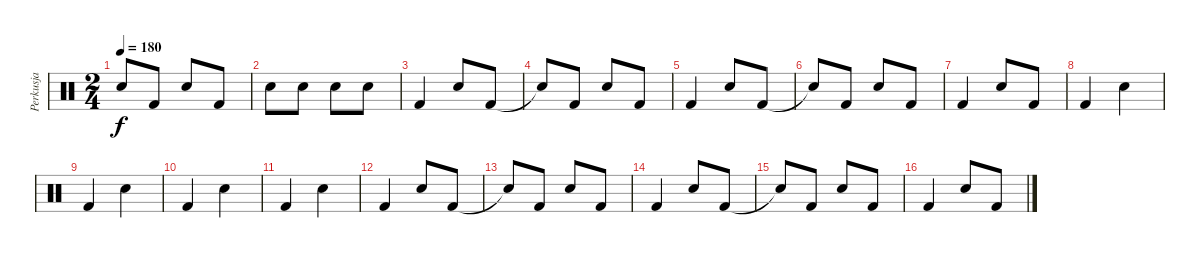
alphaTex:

\track ("Perkusja" "Perkusja") {instrument percussion}
\staff {score}
\articulation defaults
\ts (2 4)
\tempo 180
\clef neutral
\ks c "Snare (hit)"{t}.8{dy f} "Kick (hit) 2".8 "Snare (hit) 2".8 "Kick (hit) 2".8
|
"Snare (hit) 2".8 "Snare (hit) 2".8 "Snare (hit) 2".8 "Snare (hit) 2".8 |
"Kick (hit) 2".4 "Snare (hit) 2".8 "Kick (hit) 2".8 |
"Snare (hit)"{t}.8 "Kick (hit) 2".8 "Snare (hit) 2".8 "Kick (hit) 2".8 |
"Kick (hit) 2".4 "Snare (hit) 2".8 "Kick (hit) 2".8 |
"Snare (hit)"{t}.8 "Kick (hit) 2".8 "Snare (hit) 2".8 "Kick (hit) 2".8 |
"Kick (hit) 2".4 "Snare (hit) 2".8 "Kick (hit) 2".8 |
"Kick (hit) 2".4 "Snare (hit) 2".4 |
"Kick (hit) 2".4 "Snare (hit) 2".4 |
"Kick (hit) 2".4 "Snare (hit) 2".4 |
"Kick (hit) 2".4 "Snare (hit) 2".4 |
"Kick (hit) 2".4 "Snare (hit) 2".8 "Kick (hit) 2".8 |
"Snare (hit)"{t}.8 "Kick (hit) 2".8 "Snare (hit) 2".8 "Kick (hit) 2".8 |
"Kick (hit) 2".4 "Snare (hit) 2".8 "Kick (hit) 2".8 |
"Snare (hit)"{t}.8 "Kick (hit) 2".8 "Snare (hit) 2".8 "Kick (hit) 2".8 |
"Kick (hit) 2".4 "Snare (hit) 2".8 "Kick (hit) 2".8
